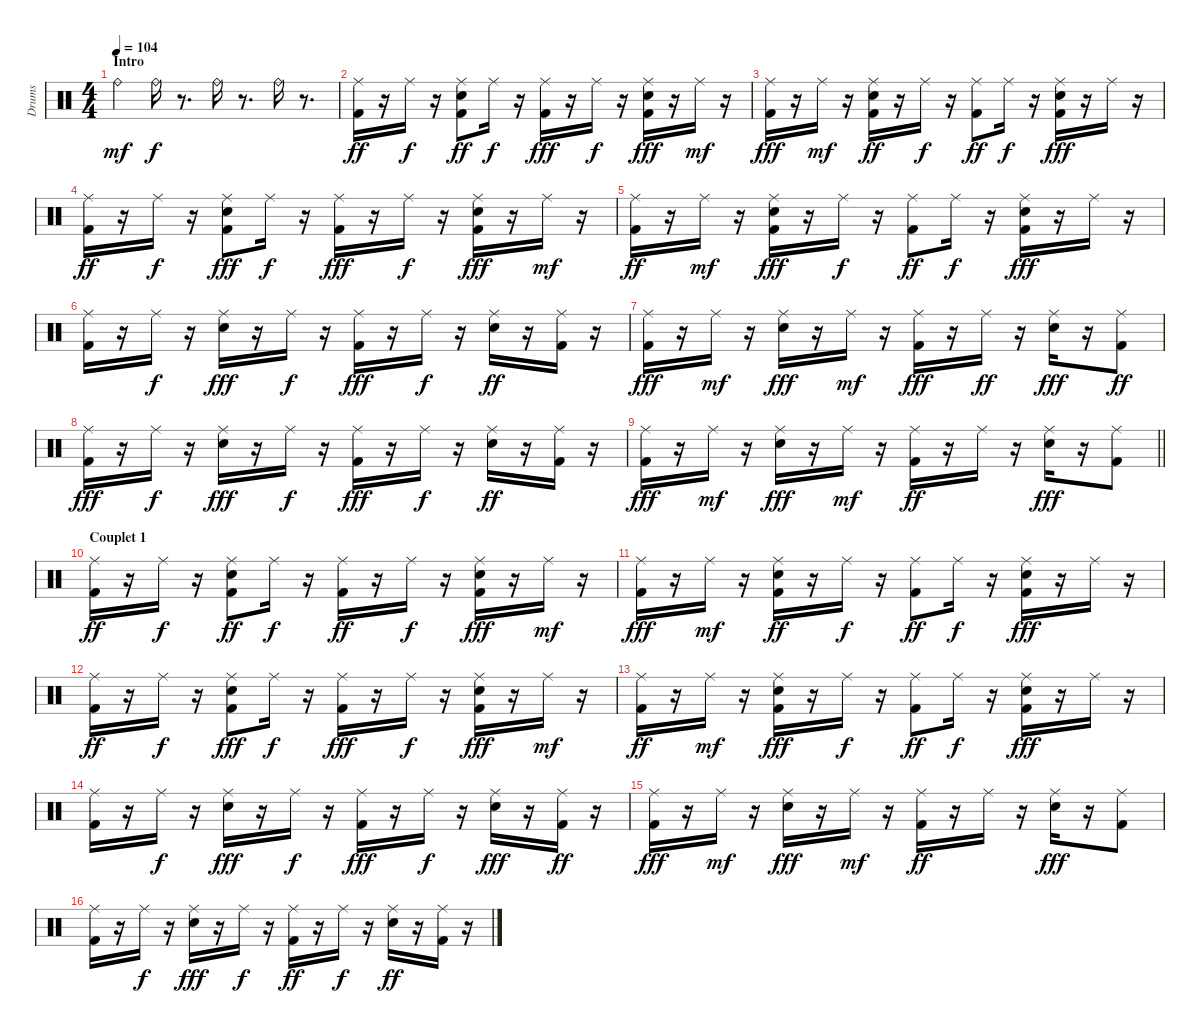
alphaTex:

\track ("Drums" "Drums") {instrument percussion}
\staff {score}
\articulation defaults
\ts (4 4)
\section ("" "Intro")
\tempo 104
\clef neutral
\ks c "Ride (bell)".4{dy mf} "Ride (bell)".16{dy f}
r.8{d} "Ride (bell)".16 r.8{d} "Ride (bell)".16 r.8{d} |
("Kick (hit) 2" "Ride (middle)").16{dy ff} r.16 "Ride (middle)".16{dy f} r.16 ("Snare (hit) 2" "Kick (hit) 2" "Ride (middle)").8{dy ff} "Ride (middle)".16{dy f} r.16 ("Ride (middle)" "Kick (hit) 2").16{dy fff} r.16 "Ride (middle)".16{dy f} r.16 ("Snare (hit) 2" "Ride (middle)" "Kick (hit) 2").16{dy fff} r.16 "Ride (middle)".16{dy mf} r.16 |
("Ride (middle)" "Kick (hit) 2").16{dy fff} r.16 "Ride (middle)".16{dy mf} r.16 ("Kick (hit) 2" "Snare (hit) 2" "Ride (middle)").16{dy ff} r.16 "Ride (middle)".16{dy f} r.16 ("Kick (hit) 2" "Ride (middle)").8{dy ff} "Ride (middle)".16{dy f} r.16 ("Kick (hit) 2" "Snare (hit) 2" "Ride (middle)").16{dy fff} r.16 "Ride (middle)".16 r.16 |
("Kick (hit) 2" "Ride (middle)").16{dy ff} r.16 "Ride (middle)".16{dy f} r.16 ("Ride (middle)" "Kick (hit) 2" "Snare (hit) 2").8{dy fff} "Ride (middle)".16{dy f} r.16 ("Ride (middle)" "Kick (hit) 2").16{dy fff} r.16 "Ride (middle)".16{dy f} r.16 ("Snare (hit) 2" "Kick (hit) 2" "Ride (middle)").16{dy fff} r.16 "Ride (middle)".16{dy mf} r.16 |
("Kick (hit) 2" "Ride (middle)").16{dy ff} r.16 "Ride (middle)".16{dy mf} r.16 ("Snare (hit) 2" "Ride (middle)" "Kick (hit) 2").16{dy fff} r.16 "Ride (middle)".16{dy f} r.16 ("Kick (hit) 2" "Ride (middle)").8{dy ff} "Ride (middle)".16{dy f} r.16 ("Snare (hit) 2" "Ride (middle)" "Kick (hit) 2").16{dy fff} r.16 "Ride (middle)".16 r.16 |
("Kick (hit) 2" "Ride (middle)").16 r.16 "Ride (middle)".16{dy f} r.16 ("Snare (hit) 2" "Ride (middle)").16{dy fff} r.16 "Ride (middle)".16{dy f} r.16 ("Ride (middle)" "Kick (hit) 2").16{dy fff} r.16 "Ride (middle)".16{dy f} r.16 ("Snare (hit) 2" "Ride (middle)").16{dy ff} r.16 ("Ride (middle)" "Kick (hit) 2").16 r.16 |
("Ride (middle)" "Kick (hit) 2").16{dy fff} r.16 "Ride (middle)".16{dy mf} r.16 ("Snare (hit) 2" "Ride (middle)").16{dy fff} r.16 "Ride (middle)".16{dy mf} r.16 ("Ride (middle)" "Kick (hit) 2").16{dy fff} r.16 "Ride (middle)".16{dy ff} r.16 ("Ride (middle)" "Snare (hit) 2").16{dy fff} r.16 ("Ride (middle)" "Kick (hit) 2").8{dy ff} |
("Kick (hit) 2" "Ride (middle)").16{dy fff} r.16 "Ride (middle)".16{dy f} r.16 ("Ride (middle)" "Snare (hit) 2").16{dy fff} r.16 "Ride (middle)".16{dy f} r.16 ("Ride (middle)" "Kick (hit) 2").16{dy fff} r.16 "Ride (middle)".16{dy f} r.16 ("Snare (hit) 2" "Ride (middle)").16{dy ff} r.16 ("Kick (hit) 2" "Ride (middle)").16 r.16 |
\barLineRight lightlight
("Kick (hit) 2" "Ride (middle)").16{dy fff} r.16 "Ride (middle)".16{dy mf} r.16 ("Ride (middle)" "Snare (hit) 2").16{dy fff} r.16 "Ride (middle)".16{dy mf} r.16 ("Kick (hit) 2" "Ride (middle)").16{dy ff} r.16 "Ride (middle)".16 r.16 ("Ride (middle)" "Snare (hit) 2").16{dy fff} r.16 ("Kick (hit) 2" "Ride (middle)").8 |
\section ("" "Couplet 1")
("Kick (hit) 2" "Ride (middle)").16{dy ff} r.16 "Ride (middle)".16{dy f} r.16 ("Kick (hit) 2" "Snare (hit) 2" "Ride (middle)").8{dy ff} "Ride (middle)".16{dy f} r.16 ("Kick (hit) 2" "Ride (middle)").16{dy ff} r.16 "Ride (middle)".16{dy f} r.16 ("Snare (hit) 2" "Ride (middle)" "Kick (hit) 2").16{dy fff} r.16 "Ride (middle)".16{dy mf} r.16 |
("Ride (middle)" "Kick (hit) 2").16{dy fff} r.16 "Ride (middle)".16{dy mf} r.16 ("Snare (hit) 2" "Kick (hit) 2" "Ride (middle)").16{dy ff} r.16 "Ride (middle)".16{dy f} r.16 ("Kick (hit) 2" "Ride (middle)").8{dy ff} "Ride (middle)".16{dy f} r.16 ("Kick (hit) 2" "Ride (middle)" "Snare (hit) 2").16{dy fff} r.16 "Ride (middle)".16 r.16 |
("Ride (middle)" "Kick (hit) 2").16{dy ff} r.16 "Ride (middle)".16{dy f} r.16 ("Ride (middle)" "Snare (hit) 2" "Kick (hit) 2").8{dy fff} "Ride (middle)".16{dy f} r.16 ("Ride (middle)" "Kick (hit) 2").16{dy fff} r.16 "Ride (middle)".16{dy f} r.16 ("Ride (middle)" "Snare (hit) 2" "Kick (hit) 2").16{dy fff} r.16 "Ride (middle)".16{dy mf} r.16 |
("Kick (hit) 2" "Ride (middle)").16{dy ff} r.16 "Ride (middle)".16{dy mf} r.16 ("Ride (middle)" "Kick (hit) 2" "Snare (hit) 2").16{dy fff} r.16 "Ride (middle)".16{dy f} r.16 ("Kick (hit) 2" "Ride (middle)").8{dy ff} "Ride (middle)".16{dy f} r.16 ("Ride (middle)" "Snare (hit) 2" "Kick (hit) 2").16{dy fff} r.16 "Ride (middle)".16 r.16 |
("Ride (middle)" "Kick (hit) 2").16 r.16 "Ride (middle)".16{dy f} r.16 ("Ride (middle)" "Snare (hit) 2").16{dy fff} r.16 "Ride (middle)".16{dy f} r.16 ("Ride (middle)" "Kick (hit) 2").16{dy fff} r.16 "Ride (middle)".16{dy f} r.16 ("Ride (middle)" "Snare (hit) 2").16{dy fff} r.16 ("Kick (hit) 2" "Ride (middle)").16{dy ff} r.16 |
("Ride (middle)" "Kick (hit) 2").16{dy fff} r.16 "Ride (middle)".16{dy mf} r.16 ("Ride (middle)" "Snare (hit) 2").16{dy fff} r.16 "Ride (middle)".16{dy mf} r.16 ("Kick (hit) 2" "Ride (middle)").16{dy ff} r.16 "Ride (middle)".16 r.16 ("Ride (middle)" "Snare (hit) 2").16{dy fff} r.16 ("Kick (hit) 2" "Ride (middle)").8 |
("Kick (hit) 2" "Ride (middle)").16 r.16 "Ride (middle)".16{dy f} r.16 ("Snare (hit) 2" "Ride (middle)").16{dy fff} r.16 "Ride (middle)".16{dy f} r.16 ("Kick (hit) 2" "Ride (middle)").16{dy ff} r.16 "Ride (middle)".16{dy f} r.16 ("Snare (hit) 2" "Ride (middle)").16{dy ff} r.16 ("Kick (hit) 2" "Ride (middle)").16 r.16
